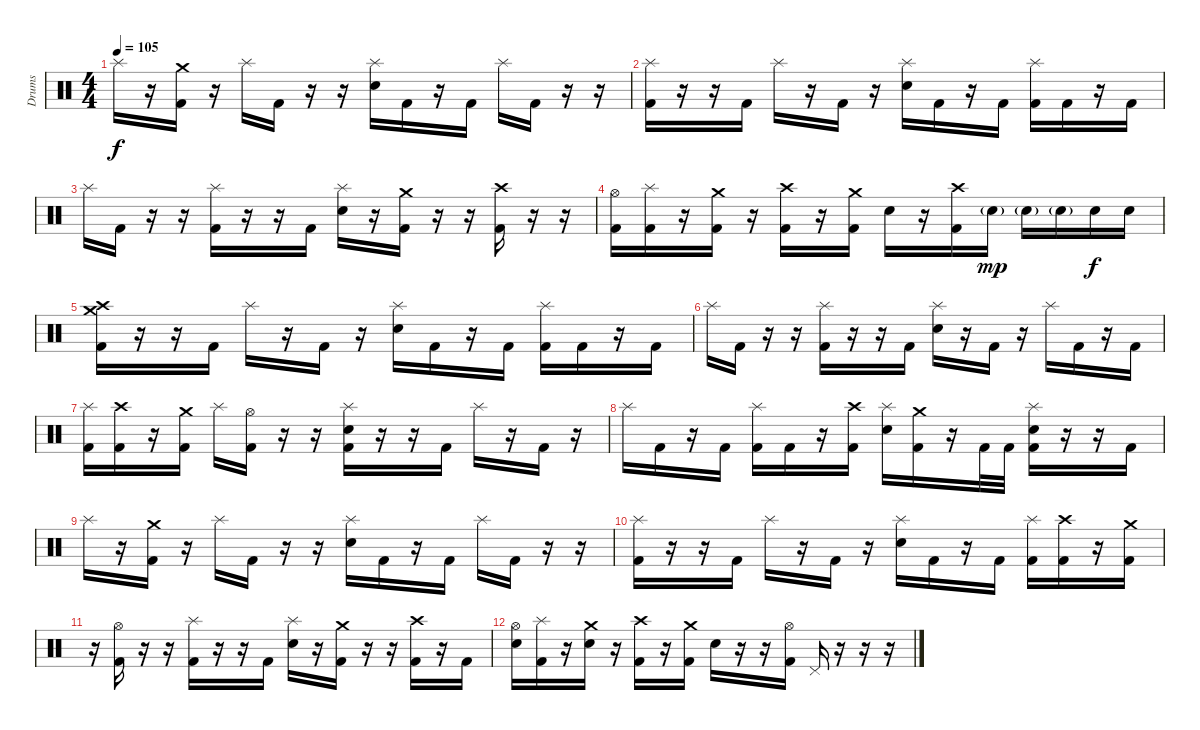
\track ("Drums" "Drums") {instrument percussion}
\staff {score}
\articulation defaults
\ts (4 4)
\tempo 105
\clef neutral
\ks c "Splash (hit)".16{dy f}
r.16 ("Crash medium (hit)" "Kick (hit) 2").16 r.16 "Splash (hit)".16 "Kick (hit) 2".16 r.16 r.16 ("Splash (hit)" "Electric Snare (hit)").16 "Kick (hit) 2".16 r.16 "Kick (hit) 2".16 "Splash (hit)".16 "Kick (hit) 2".16 r.16 r.16 |
("Splash (hit)" "Kick (hit) 2").16 r.16 r.16 "Kick (hit) 2".16 "Splash (hit)".16 r.16 "Kick (hit) 2".16 r.16 ("Splash (hit)" "Electric Snare (hit)").16 "Kick (hit) 2".16 r.16 "Kick (hit) 2".16 ("Splash (hit)" "Kick (hit) 2").16 "Kick (hit) 2".16 r.16 "Kick (hit) 2".16 |
"Splash (hit)".16 "Kick (hit) 2".16 r.16 r.16 ("Splash (hit)" "Kick (hit) 2").16 r.16 r.16 "Kick (hit) 2".16 ("Splash (hit)" "Electric Snare (hit)").16 r.16 ("Crash medium (hit)" "Kick (hit) 2").16 r.16 r.16 ("Crash high (hit)" "Kick (hit) 2").16 r.16 r.16 |
("Hi-Hat (open)" "Kick (hit) 2").16 ("Splash (hit)" "Kick (hit) 2").16 r.16 ("Crash medium (hit)" "Kick (hit) 2").16 r.16 ("Crash high (hit)" "Kick (hit) 2").16 r.16 ("Crash medium (hit)" "Kick (hit) 2").16 "Electric Snare (hit)".16 r.16 ("Crash high (hit)" "Kick (hit) 2").16 "Electric Snare (hit)"{g}.16{dy mp} "Electric Snare (hit)"{g}.16 "Electric Snare (hit)"{g}.16 "Electric Snare (hit)".16{dy f} "Electric Snare (hit)".16 |
("Crash medium (hit)" "Crash high (hit)" "Kick (hit) 2").16 r.16 r.16 "Kick (hit) 2".16 "Splash (hit)".16 r.16 "Kick (hit) 2".16 r.16 ("Splash (hit)" "Electric Snare (hit)").16 "Kick (hit) 2".16 r.16 "Kick (hit) 2".16 ("Splash (hit)" "Kick (hit) 2").16 "Kick (hit) 2".16 r.16 "Kick (hit) 2".16 |
"Splash (hit)".16 "Kick (hit) 2".16 r.16 r.16 ("Splash (hit)" "Kick (hit) 2").16 r.16 r.16 "Kick (hit) 2".16 ("Splash (hit)" "Electric Snare (hit)").16 r.16 "Kick (hit) 2".16 r.16 "Splash (hit)".16 "Kick (hit) 2".16 r.16 "Kick (hit) 2".16 |
("Splash (hit)" "Kick (hit) 2").16 ("Crash high (hit)" "Kick (hit) 2").16 r.16 ("Crash medium (hit)" "Kick (hit) 2").16 "Splash (hit)".16 ("Hi-Hat (open)" "Kick (hit) 2").16 r.16 r.16 ("Splash (hit)" "Electric Snare (hit)" "Kick (hit) 2").16 r.16 r.16 "Kick (hit) 2".16 "Splash (hit)".16 r.16 "Kick (hit) 2".16 r.16 |
"Splash (hit)".16 "Kick (hit) 2".16 r.16 "Kick (hit) 2".16 ("Splash (hit)" "Kick (hit) 2").16 "Kick (hit) 2".16 r.16 ("Crash high (hit)" "Kick (hit) 2").16 ("Splash (hit)" "Electric Snare (hit)").16 ("Crash medium (hit)" "Kick (hit) 2").16 r.16 "Kick (hit) 2".32 "Kick (hit) 2".32 ("Splash (hit)" "Electric Snare (hit)" "Kick (hit) 2").16 r.16 r.16 "Kick (hit) 2".16 |
"Splash (hit)".16 r.16 ("Crash medium (hit)" "Kick (hit) 2").16 r.16 "Splash (hit)".16 "Kick (hit) 2".16 r.16 r.16 ("Splash (hit)" "Electric Snare (hit)").16 "Kick (hit) 2".16 r.16 "Kick (hit) 2".16 "Splash (hit)".16 "Kick (hit) 2".16 r.16 r.16 |
("Splash (hit)" "Kick (hit) 2").16 r.16 r.16 "Kick (hit) 2".16 "Splash (hit)".16 r.16 "Kick (hit) 2".16 r.16 ("Splash (hit)" "Electric Snare (hit)").16 "Kick (hit) 2".16 r.16 "Kick (hit) 2".16 ("Splash (hit)" "Kick (hit) 2").16 ("Crash high (hit)" "Kick (hit) 2").16 r.16 ("Crash medium (hit)" "Kick (hit) 2").16 |
r.16 ("Hi-Hat (open)" "Kick (hit) 2").16 r.16 r.16 ("Splash (hit)" "Kick (hit) 2").16 r.16 r.16 "Kick (hit) 2".16 ("Splash (hit)" "Electric Snare (hit)").16 r.16 ("Crash medium (hit)" "Kick (hit) 2").16 r.16 r.16 ("Crash high (hit)" "Kick (hit) 2").16 r.16 "Kick (hit) 2".16 |
("Hi-Hat (open)" "Electric Snare (hit)").16 ("Splash (hit)" "Kick (hit) 2").16 r.16 ("Crash medium (hit)" "Electric Snare (hit)").16 r.16 ("Crash high (hit)" "Kick (hit) 2").16 r.16 ("Crash medium (hit)" "Kick (hit) 2").16 "Electric Snare (hit)".16 r.16 r.16 ("Hi-Hat (open)" "Kick (hit) 2").16 "Pedal Hi-Hat (hit)".16 r.16 r.16 r.16
